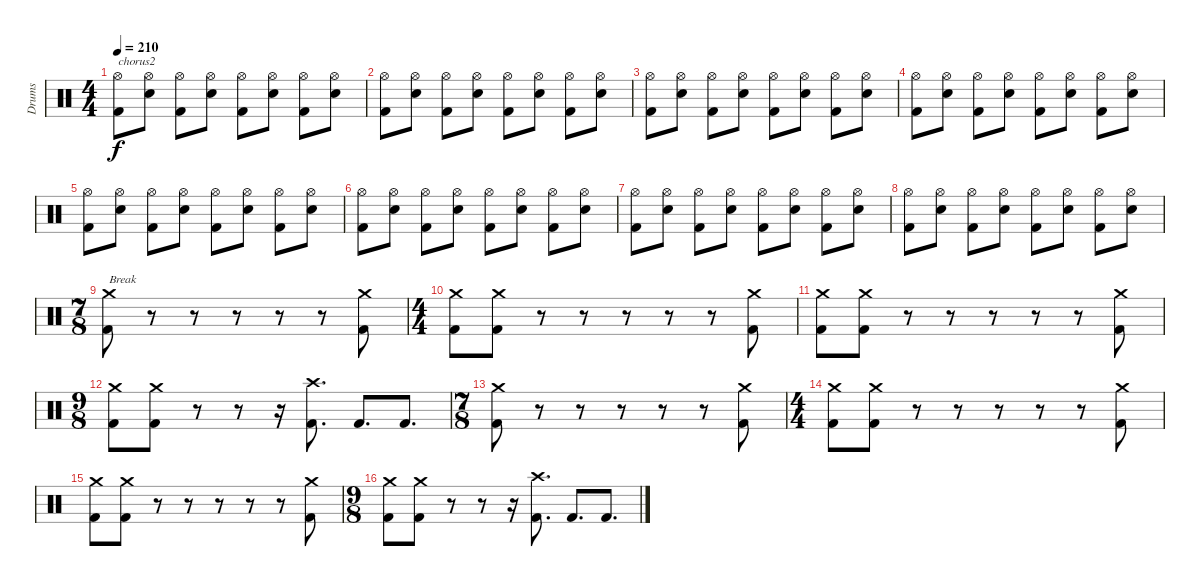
\track ("Drums" "Drums") {instrument percussion}
\staff {score}
\articulation defaults
\ts (4 4)
\tempo 210
\clef neutral
\ks c
("Kick (hit) 2" "Hi-Hat (open)").8{txt "chorus2" dy f} ("Snare (hit) 2" "Hi-Hat (open)").8 ("Kick (hit) 2" "Hi-Hat (open)").8 ("Snare (hit) 2" "Hi-Hat (open)").8 ("Kick (hit) 2" "Hi-Hat (open)").8 ("Snare (hit) 2" "Hi-Hat (open)").8 ("Kick (hit) 2" "Hi-Hat (open)").8 ("Snare (hit) 2" "Hi-Hat (open)").8 |
("Kick (hit) 2" "Hi-Hat (open)").8 ("Snare (hit) 2" "Hi-Hat (open)").8 ("Kick (hit) 2" "Hi-Hat (open)").8 ("Snare (hit) 2" "Hi-Hat (open)").8 ("Kick (hit) 2" "Hi-Hat (open)").8 ("Snare (hit) 2" "Hi-Hat (open)").8 ("Kick (hit) 2" "Hi-Hat (open)").8 ("Snare (hit) 2" "Hi-Hat (open)").8 |
("Kick (hit) 2" "Hi-Hat (open)").8 ("Snare (hit) 2" "Hi-Hat (open)").8 ("Kick (hit) 2" "Hi-Hat (open)").8 ("Snare (hit) 2" "Hi-Hat (open)").8 ("Kick (hit) 2" "Hi-Hat (open)").8 ("Snare (hit) 2" "Hi-Hat (open)").8 ("Kick (hit) 2" "Hi-Hat (open)").8 ("Snare (hit) 2" "Hi-Hat (open)").8 |
("Kick (hit) 2" "Hi-Hat (open)").8 ("Snare (hit) 2" "Hi-Hat (open)").8 ("Kick (hit) 2" "Hi-Hat (open)").8 ("Snare (hit) 2" "Hi-Hat (open)").8 ("Kick (hit) 2" "Hi-Hat (open)").8 ("Snare (hit) 2" "Hi-Hat (open)").8 ("Kick (hit) 2" "Hi-Hat (open)").8 ("Snare (hit) 2" "Hi-Hat (open)").8 |
("Kick (hit) 2" "Hi-Hat (open)").8 ("Snare (hit) 2" "Hi-Hat (open)").8 ("Kick (hit) 2" "Hi-Hat (open)").8 ("Snare (hit) 2" "Hi-Hat (open)").8 ("Kick (hit) 2" "Hi-Hat (open)").8 ("Snare (hit) 2" "Hi-Hat (open)").8 ("Kick (hit) 2" "Hi-Hat (open)").8 ("Snare (hit) 2" "Hi-Hat (open)").8 |
("Kick (hit) 2" "Hi-Hat (open)").8 ("Snare (hit) 2" "Hi-Hat (open)").8 ("Kick (hit) 2" "Hi-Hat (open)").8 ("Snare (hit) 2" "Hi-Hat (open)").8 ("Kick (hit) 2" "Hi-Hat (open)").8 ("Snare (hit) 2" "Hi-Hat (open)").8 ("Kick (hit) 2" "Hi-Hat (open)").8 ("Snare (hit) 2" "Hi-Hat (open)").8 |
("Kick (hit) 2" "Hi-Hat (open)").8 ("Snare (hit) 2" "Hi-Hat (open)").8 ("Kick (hit) 2" "Hi-Hat (open)").8 ("Snare (hit) 2" "Hi-Hat (open)").8 ("Kick (hit) 2" "Hi-Hat (open)").8 ("Snare (hit) 2" "Hi-Hat (open)").8 ("Kick (hit) 2" "Hi-Hat (open)").8 ("Snare (hit) 2" "Hi-Hat (open)").8 |
("Kick (hit) 2" "Hi-Hat (open)").8 ("Snare (hit) 2" "Hi-Hat (open)").8 ("Kick (hit) 2" "Hi-Hat (open)").8 ("Snare (hit) 2" "Hi-Hat (open)").8 ("Kick (hit) 2" "Hi-Hat (open)").8 ("Snare (hit) 2" "Hi-Hat (open)").8 ("Kick (hit) 2" "Hi-Hat (open)").8 ("Snare (hit) 2" "Hi-Hat (open)").8 |
\ts (7 8)
("Kick (hit) 2" "Crash medium (hit)").8{txt "Break"} r.8 r.8 r.8 r.8 r.8 ("Kick (hit) 2" "Crash medium (hit)").8 |
\ts (4 4)
("Kick (hit) 2" "Crash medium (hit)").8 ("Kick (hit) 2" "Crash medium (hit)").8 r.8 r.8 r.8 r.8 r.8 ("Kick (hit) 2" "Crash medium (hit)").8 |
("Kick (hit) 2" "Crash medium (hit)").8 ("Kick (hit) 2" "Crash medium (hit)").8 r.8 r.8 r.8 r.8 r.8 ("Kick (hit) 2" "Crash medium (hit)").8 |
\ts (9 8)
("Kick (hit) 2" "Crash medium (hit)").8 ("Kick (hit) 2" "Crash medium (hit)").8 r.8 r.8 r.16 ("Kick (hit) 2" "Crash high (hit)").8{d} "Kick (hit) 2".8{d} "Kick (hit) 2".8{d} |
\ts (7 8)
("Kick (hit) 2" "Crash medium (hit)").8 r.8 r.8 r.8 r.8 r.8 ("Kick (hit) 2" "Crash medium (hit)").8 |
\ts (4 4)
("Kick (hit) 2" "Crash medium (hit)").8 ("Kick (hit) 2" "Crash medium (hit)").8 r.8 r.8 r.8 r.8 r.8 ("Kick (hit) 2" "Crash medium (hit)").8 |
("Kick (hit) 2" "Crash medium (hit)").8 ("Kick (hit) 2" "Crash medium (hit)").8 r.8 r.8 r.8 r.8 r.8 ("Kick (hit) 2" "Crash medium (hit)").8 |
\ts (9 8)
("Kick (hit) 2" "Crash medium (hit)").8 ("Kick (hit) 2" "Crash medium (hit)").8 r.8 r.8 r.16 ("Kick (hit) 2" "Crash high (hit)").8{d} "Kick (hit) 2".8{d} "Kick (hit) 2".8{d}
